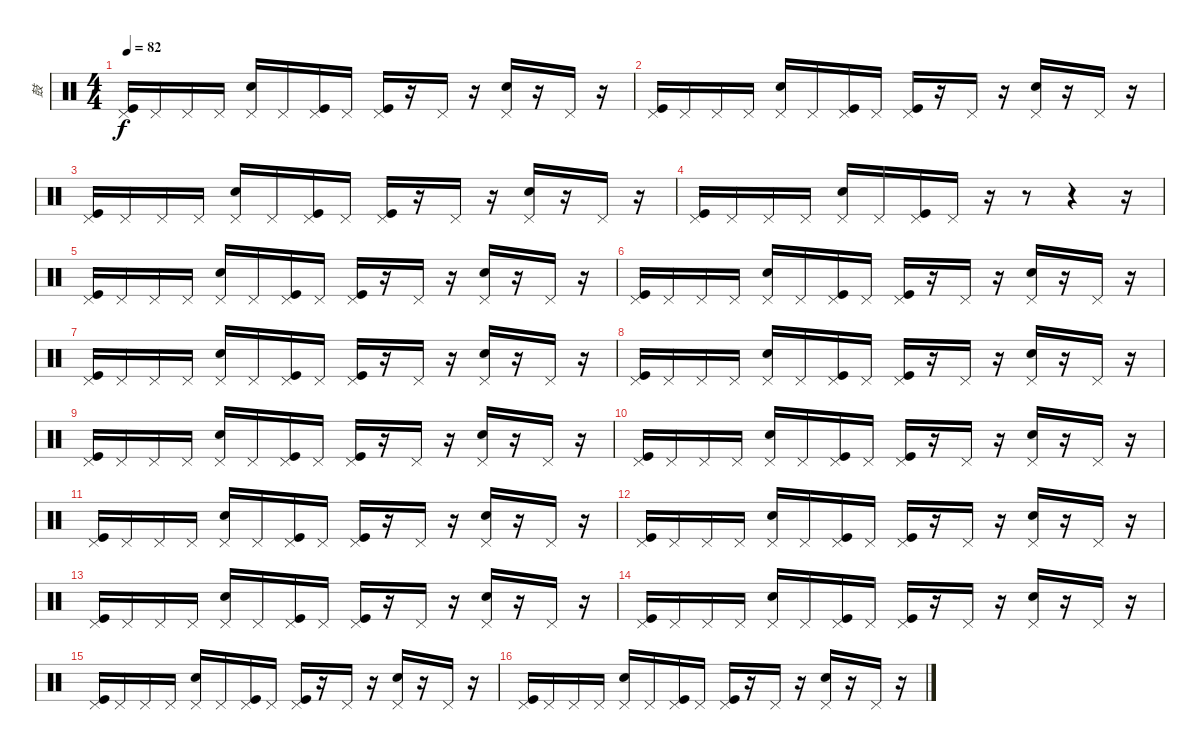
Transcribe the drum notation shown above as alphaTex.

\track ("鼓" "鼓") {instrument percussion}
\staff {score}
\articulation defaults
\ts (4 4)
\tempo 82
\clef neutral
\ks c
("Pedal Hi-Hat (hit)" "Kick (hit)").16{dy f} "Pedal Hi-Hat (hit)".16 "Pedal Hi-Hat (hit)".16 "Pedal Hi-Hat (hit)".16 ("Pedal Hi-Hat (hit)" "Electric Snare (hit)").16 "Pedal Hi-Hat (hit)".16 ("Pedal Hi-Hat (hit)" "Kick (hit)").16 "Pedal Hi-Hat (hit)".16 ("Pedal Hi-Hat (hit)" "Kick (hit)").16 r.16 "Pedal Hi-Hat (hit)".16 r.16 ("Pedal Hi-Hat (hit)" "Electric Snare (hit)").16 r.16 "Pedal Hi-Hat (hit)".16 r.16 |
("Pedal Hi-Hat (hit)" "Kick (hit)").16 "Pedal Hi-Hat (hit)".16 "Pedal Hi-Hat (hit)".16 "Pedal Hi-Hat (hit)".16 ("Pedal Hi-Hat (hit)" "Electric Snare (hit)").16 "Pedal Hi-Hat (hit)".16 ("Pedal Hi-Hat (hit)" "Kick (hit)").16 "Pedal Hi-Hat (hit)".16 ("Pedal Hi-Hat (hit)" "Kick (hit)").16 r.16 "Pedal Hi-Hat (hit)".16 r.16 ("Pedal Hi-Hat (hit)" "Electric Snare (hit)").16 r.16 "Pedal Hi-Hat (hit)".16 r.16 |
("Pedal Hi-Hat (hit)" "Kick (hit)").16 "Pedal Hi-Hat (hit)".16 "Pedal Hi-Hat (hit)".16 "Pedal Hi-Hat (hit)".16 ("Pedal Hi-Hat (hit)" "Electric Snare (hit)").16 "Pedal Hi-Hat (hit)".16 ("Pedal Hi-Hat (hit)" "Kick (hit)").16 "Pedal Hi-Hat (hit)".16 ("Pedal Hi-Hat (hit)" "Kick (hit)").16 r.16 "Pedal Hi-Hat (hit)".16 r.16 ("Pedal Hi-Hat (hit)" "Electric Snare (hit)").16 r.16 "Pedal Hi-Hat (hit)".16 r.16 |
("Pedal Hi-Hat (hit)" "Kick (hit)").16 "Pedal Hi-Hat (hit)".16 "Pedal Hi-Hat (hit)".16 "Pedal Hi-Hat (hit)".16 ("Pedal Hi-Hat (hit)" "Electric Snare (hit)").16 "Pedal Hi-Hat (hit)".16 ("Pedal Hi-Hat (hit)" "Kick (hit)").16 "Pedal Hi-Hat (hit)".16 r.16 r.8 r.4 r.16 |
("Pedal Hi-Hat (hit)" "Kick (hit)").16 "Pedal Hi-Hat (hit)".16 "Pedal Hi-Hat (hit)".16 "Pedal Hi-Hat (hit)".16 ("Pedal Hi-Hat (hit)" "Electric Snare (hit)").16 "Pedal Hi-Hat (hit)".16 ("Pedal Hi-Hat (hit)" "Kick (hit)").16 "Pedal Hi-Hat (hit)".16 ("Pedal Hi-Hat (hit)" "Kick (hit)").16 r.16 "Pedal Hi-Hat (hit)".16 r.16 ("Pedal Hi-Hat (hit)" "Electric Snare (hit)").16 r.16 "Pedal Hi-Hat (hit)".16 r.16 |
("Pedal Hi-Hat (hit)" "Kick (hit)").16 "Pedal Hi-Hat (hit)".16 "Pedal Hi-Hat (hit)".16 "Pedal Hi-Hat (hit)".16 ("Pedal Hi-Hat (hit)" "Electric Snare (hit)").16 "Pedal Hi-Hat (hit)".16 ("Pedal Hi-Hat (hit)" "Kick (hit)").16 "Pedal Hi-Hat (hit)".16 ("Pedal Hi-Hat (hit)" "Kick (hit)").16 r.16 "Pedal Hi-Hat (hit)".16 r.16 ("Pedal Hi-Hat (hit)" "Electric Snare (hit)").16 r.16 "Pedal Hi-Hat (hit)".16 r.16 |
("Pedal Hi-Hat (hit)" "Kick (hit)").16 "Pedal Hi-Hat (hit)".16 "Pedal Hi-Hat (hit)".16 "Pedal Hi-Hat (hit)".16 ("Pedal Hi-Hat (hit)" "Electric Snare (hit)").16 "Pedal Hi-Hat (hit)".16 ("Pedal Hi-Hat (hit)" "Kick (hit)").16 "Pedal Hi-Hat (hit)".16 ("Pedal Hi-Hat (hit)" "Kick (hit)").16 r.16 "Pedal Hi-Hat (hit)".16 r.16 ("Pedal Hi-Hat (hit)" "Electric Snare (hit)").16 r.16 "Pedal Hi-Hat (hit)".16 r.16 |
("Pedal Hi-Hat (hit)" "Kick (hit)").16 "Pedal Hi-Hat (hit)".16 "Pedal Hi-Hat (hit)".16 "Pedal Hi-Hat (hit)".16 ("Pedal Hi-Hat (hit)" "Electric Snare (hit)").16 "Pedal Hi-Hat (hit)".16 ("Pedal Hi-Hat (hit)" "Kick (hit)").16 "Pedal Hi-Hat (hit)".16 ("Pedal Hi-Hat (hit)" "Kick (hit)").16 r.16 "Pedal Hi-Hat (hit)".16 r.16 ("Pedal Hi-Hat (hit)" "Electric Snare (hit)").16 r.16 "Pedal Hi-Hat (hit)".16 r.16 |
("Pedal Hi-Hat (hit)" "Kick (hit)").16 "Pedal Hi-Hat (hit)".16 "Pedal Hi-Hat (hit)".16 "Pedal Hi-Hat (hit)".16 ("Pedal Hi-Hat (hit)" "Electric Snare (hit)").16 "Pedal Hi-Hat (hit)".16 ("Pedal Hi-Hat (hit)" "Kick (hit)").16 "Pedal Hi-Hat (hit)".16 ("Pedal Hi-Hat (hit)" "Kick (hit)").16 r.16 "Pedal Hi-Hat (hit)".16 r.16 ("Pedal Hi-Hat (hit)" "Electric Snare (hit)").16 r.16 "Pedal Hi-Hat (hit)".16 r.16 |
("Pedal Hi-Hat (hit)" "Kick (hit)").16 "Pedal Hi-Hat (hit)".16 "Pedal Hi-Hat (hit)".16 "Pedal Hi-Hat (hit)".16 ("Pedal Hi-Hat (hit)" "Electric Snare (hit)").16 "Pedal Hi-Hat (hit)".16 ("Pedal Hi-Hat (hit)" "Kick (hit)").16 "Pedal Hi-Hat (hit)".16 ("Pedal Hi-Hat (hit)" "Kick (hit)").16 r.16 "Pedal Hi-Hat (hit)".16 r.16 ("Pedal Hi-Hat (hit)" "Electric Snare (hit)").16 r.16 "Pedal Hi-Hat (hit)".16 r.16 |
("Pedal Hi-Hat (hit)" "Kick (hit)").16 "Pedal Hi-Hat (hit)".16 "Pedal Hi-Hat (hit)".16 "Pedal Hi-Hat (hit)".16 ("Pedal Hi-Hat (hit)" "Electric Snare (hit)").16 "Pedal Hi-Hat (hit)".16 ("Pedal Hi-Hat (hit)" "Kick (hit)").16 "Pedal Hi-Hat (hit)".16 ("Pedal Hi-Hat (hit)" "Kick (hit)").16 r.16 "Pedal Hi-Hat (hit)".16 r.16 ("Pedal Hi-Hat (hit)" "Electric Snare (hit)").16 r.16 "Pedal Hi-Hat (hit)".16 r.16 |
("Pedal Hi-Hat (hit)" "Kick (hit)").16 "Pedal Hi-Hat (hit)".16 "Pedal Hi-Hat (hit)".16 "Pedal Hi-Hat (hit)".16 ("Pedal Hi-Hat (hit)" "Electric Snare (hit)").16 "Pedal Hi-Hat (hit)".16 ("Pedal Hi-Hat (hit)" "Kick (hit)").16 "Pedal Hi-Hat (hit)".16 ("Pedal Hi-Hat (hit)" "Kick (hit)").16 r.16 "Pedal Hi-Hat (hit)".16 r.16 ("Pedal Hi-Hat (hit)" "Electric Snare (hit)").16 r.16 "Pedal Hi-Hat (hit)".16 r.16 |
("Pedal Hi-Hat (hit)" "Kick (hit)").16 "Pedal Hi-Hat (hit)".16 "Pedal Hi-Hat (hit)".16 "Pedal Hi-Hat (hit)".16 ("Pedal Hi-Hat (hit)" "Electric Snare (hit)").16 "Pedal Hi-Hat (hit)".16 ("Pedal Hi-Hat (hit)" "Kick (hit)").16 "Pedal Hi-Hat (hit)".16 ("Pedal Hi-Hat (hit)" "Kick (hit)").16 r.16 "Pedal Hi-Hat (hit)".16 r.16 ("Pedal Hi-Hat (hit)" "Electric Snare (hit)").16 r.16 "Pedal Hi-Hat (hit)".16 r.16 |
("Pedal Hi-Hat (hit)" "Kick (hit)").16 "Pedal Hi-Hat (hit)".16 "Pedal Hi-Hat (hit)".16 "Pedal Hi-Hat (hit)".16 ("Pedal Hi-Hat (hit)" "Electric Snare (hit)").16 "Pedal Hi-Hat (hit)".16 ("Pedal Hi-Hat (hit)" "Kick (hit)").16 "Pedal Hi-Hat (hit)".16 ("Pedal Hi-Hat (hit)" "Kick (hit)").16 r.16 "Pedal Hi-Hat (hit)".16 r.16 ("Pedal Hi-Hat (hit)" "Electric Snare (hit)").16 r.16 "Pedal Hi-Hat (hit)".16 r.16 |
("Pedal Hi-Hat (hit)" "Kick (hit)").16 "Pedal Hi-Hat (hit)".16 "Pedal Hi-Hat (hit)".16 "Pedal Hi-Hat (hit)".16 ("Pedal Hi-Hat (hit)" "Electric Snare (hit)").16 "Pedal Hi-Hat (hit)".16 ("Pedal Hi-Hat (hit)" "Kick (hit)").16 "Pedal Hi-Hat (hit)".16 ("Pedal Hi-Hat (hit)" "Kick (hit)").16 r.16 "Pedal Hi-Hat (hit)".16 r.16 ("Pedal Hi-Hat (hit)" "Electric Snare (hit)").16 r.16 "Pedal Hi-Hat (hit)".16 r.16 |
("Pedal Hi-Hat (hit)" "Kick (hit)").16 "Pedal Hi-Hat (hit)".16 "Pedal Hi-Hat (hit)".16 "Pedal Hi-Hat (hit)".16 ("Pedal Hi-Hat (hit)" "Electric Snare (hit)").16 "Pedal Hi-Hat (hit)".16 ("Pedal Hi-Hat (hit)" "Kick (hit)").16 "Pedal Hi-Hat (hit)".16 ("Pedal Hi-Hat (hit)" "Kick (hit)").16 r.16 "Pedal Hi-Hat (hit)".16 r.16 ("Pedal Hi-Hat (hit)" "Electric Snare (hit)").16 r.16 "Pedal Hi-Hat (hit)".16 r.16
